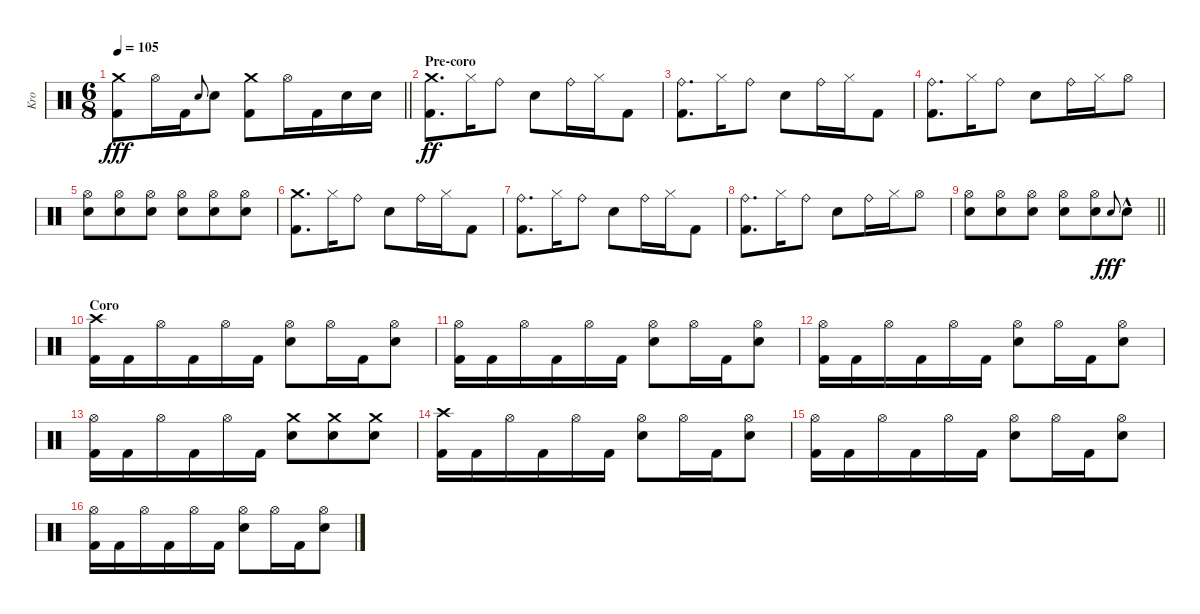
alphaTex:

\track ("Kro" "Kro") {instrument percussion}
\staff {score}
\articulation defaults
\ts (6 8)
\tempo 105
\clef neutral
\barLineRight lightlight
\ks c
("Crash medium (hit)" "Kick (hit) 2").8{dy fff} "Hi-Hat (open)".16 "Kick (hit) 2".16 "Electric Snare (hit)".8{gr onbeat} "Electric Snare (hit)".8 ("Crash medium (hit)" "Kick (hit) 2").8 "Hi-Hat (open)".16 "Kick (hit) 2".16 "Electric Snare (hit)".16 "Electric Snare (hit)".16 |
\section ("" "Pre-coro")
("Crash medium (hit)" "Kick (hit) 2").8{d dy ff} "Hi-Hat (closed)".16 "Ride (bell)".8 "Electric Snare (hit)".8 "Ride (bell)".16 "Hi-Hat (closed)".16 "Kick (hit) 2".8 |
("Ride (bell)" "Kick (hit) 2").8{d} "Hi-Hat (closed)".16 "Ride (bell)".8 "Electric Snare (hit)".8 "Ride (bell)".16 "Hi-Hat (closed)".16 "Kick (hit) 2".8 |
("Ride (bell)" "Kick (hit) 2").8{d} "Hi-Hat (closed)".16 "Ride (bell)".8 "Electric Snare (hit)".8 "Ride (bell)".16 "Hi-Hat (closed)".16 "Hi-Hat (open)".8 |
("Hi-Hat (open)" "Electric Snare (hit)").8 ("Hi-Hat (open)" "Electric Snare (hit)").8 ("Hi-Hat (open)" "Electric Snare (hit)").8 ("Hi-Hat (open)" "Electric Snare (hit)").8 ("Hi-Hat (open)" "Electric Snare (hit)").8 ("Hi-Hat (open)" "Electric Snare (hit)").8 |
("Crash medium (hit)" "Kick (hit) 2").8{d} "Hi-Hat (closed)".16 "Ride (bell)".8 "Electric Snare (hit)".8 "Ride (bell)".16 "Hi-Hat (closed)".16 "Kick (hit) 2".8 |
("Ride (bell)" "Kick (hit) 2").8{d} "Hi-Hat (closed)".16 "Ride (bell)".8 "Electric Snare (hit)".8 "Ride (bell)".16 "Hi-Hat (closed)".16 "Kick (hit) 2".8 |
("Ride (bell)" "Kick (hit) 2").8{d} "Hi-Hat (closed)".16 "Ride (bell)".8 "Electric Snare (hit)".8 "Ride (bell)".16 "Hi-Hat (closed)".16 "Hi-Hat (open)".8 |
\barLineRight lightlight
("Hi-Hat (open)" "Electric Snare (hit)").8 ("Hi-Hat (open)" "Electric Snare (hit)").8 ("Hi-Hat (open)" "Electric Snare (hit)").8 ("Hi-Hat (open)" "Electric Snare (hit)").8 ("Hi-Hat (open)" "Electric Snare (hit)").8 "Electric Snare (hit)".8{gr onbeat dy fff} "Electric Snare (hit)"{hac}.8 |
\section ("" "Coro")
("Crash high (hit)" "Kick (hit) 2").16 "Kick (hit) 2".16 "Hi-Hat (open)".16 "Kick (hit) 2".16 "Hi-Hat (open)".16 "Kick (hit) 2".16 ("Hi-Hat (open)" "Electric Snare (hit)").8 "Hi-Hat (open)".16 "Kick (hit) 2".16 ("Hi-Hat (open)" "Electric Snare (hit)").8 |
("Hi-Hat (open)" "Kick (hit) 2").16 "Kick (hit) 2".16 "Hi-Hat (open)".16 "Kick (hit) 2".16 "Hi-Hat (open)".16 "Kick (hit) 2".16 ("Hi-Hat (open)" "Electric Snare (hit)").8 "Hi-Hat (open)".16 "Kick (hit) 2".16 ("Hi-Hat (open)" "Electric Snare (hit)").8 |
("Hi-Hat (open)" "Kick (hit) 2").16 "Kick (hit) 2".16 "Hi-Hat (open)".16 "Kick (hit) 2".16 "Hi-Hat (open)".16 "Kick (hit) 2".16 ("Hi-Hat (open)" "Electric Snare (hit)").8 "Hi-Hat (open)".16 "Kick (hit) 2".16 ("Hi-Hat (open)" "Electric Snare (hit)").8 |
("Hi-Hat (open)" "Kick (hit) 2").16 "Kick (hit) 2".16 "Hi-Hat (open)".16 "Kick (hit) 2".16 "Hi-Hat (open)".16 "Kick (hit) 2".16 ("Crash medium (hit)" "Electric Snare (hit)").8 ("Crash medium (hit)" "Electric Snare (hit)").8 ("Crash medium (hit)" "Electric Snare (hit)").8 |
("Crash high (hit)" "Kick (hit) 2").16 "Kick (hit) 2".16 "Hi-Hat (open)".16 "Kick (hit) 2".16 "Hi-Hat (open)".16 "Kick (hit) 2".16 ("Hi-Hat (open)" "Electric Snare (hit)").8 "Hi-Hat (open)".16 "Kick (hit) 2".16 ("Hi-Hat (open)" "Electric Snare (hit)").8 |
("Hi-Hat (open)" "Kick (hit) 2").16 "Kick (hit) 2".16 "Hi-Hat (open)".16 "Kick (hit) 2".16 "Hi-Hat (open)".16 "Kick (hit) 2".16 ("Hi-Hat (open)" "Electric Snare (hit)").8 "Hi-Hat (open)".16 "Kick (hit) 2".16 ("Hi-Hat (open)" "Electric Snare (hit)").8 |
("Hi-Hat (open)" "Kick (hit) 2").16 "Kick (hit) 2".16 "Hi-Hat (open)".16 "Kick (hit) 2".16 "Hi-Hat (open)".16 "Kick (hit) 2".16 ("Hi-Hat (open)" "Electric Snare (hit)").8 "Hi-Hat (open)".16 "Kick (hit) 2".16 ("Hi-Hat (open)" "Electric Snare (hit)").8
